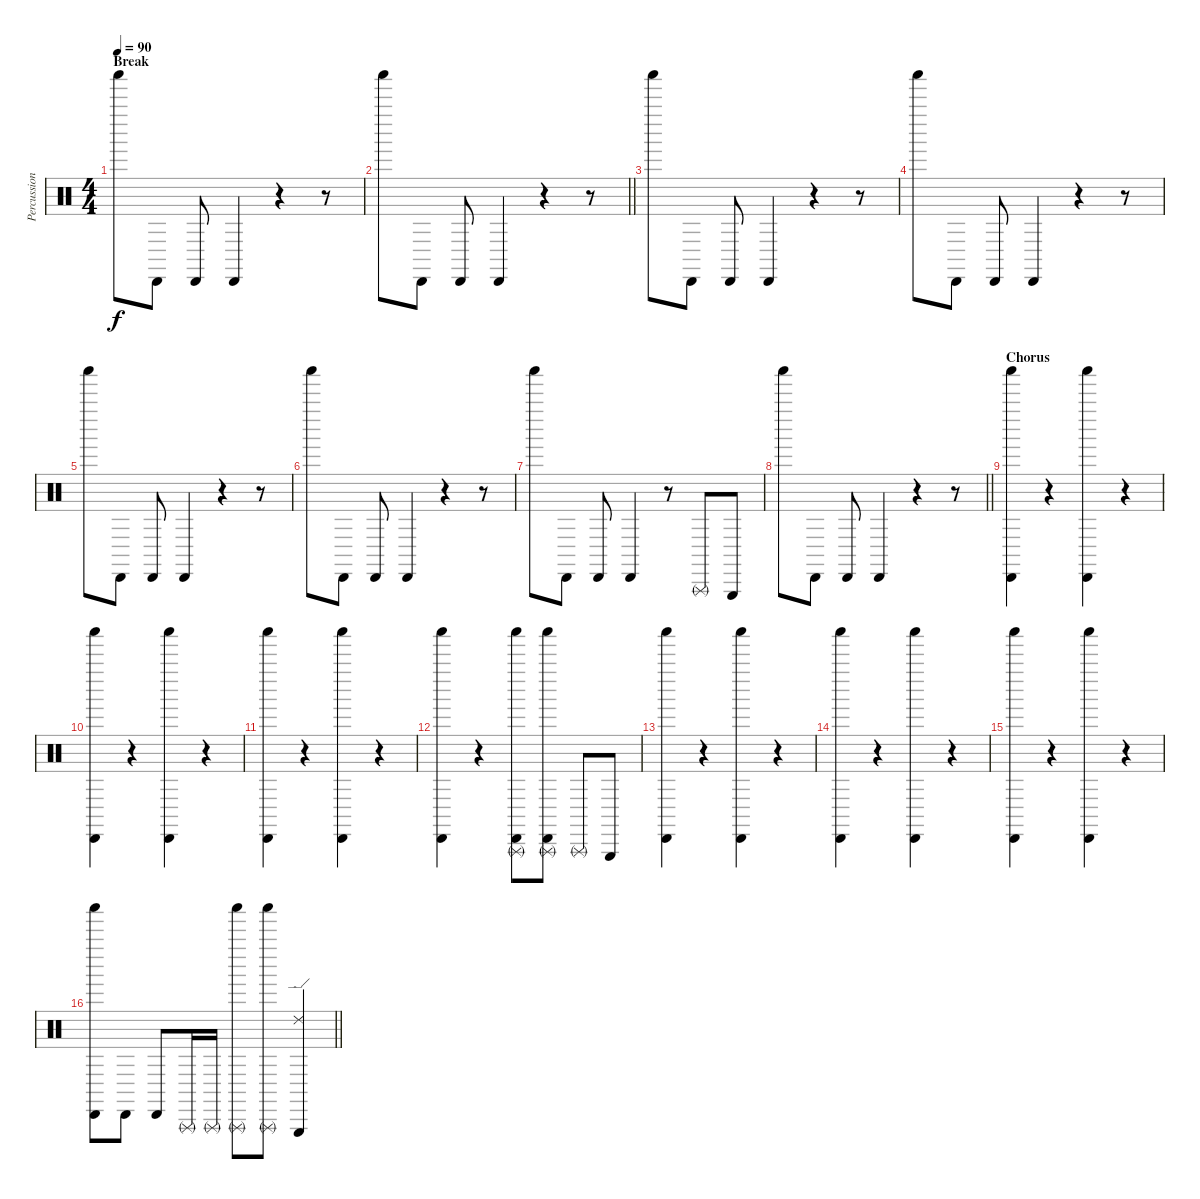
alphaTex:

\track ("Percussion" "Percussion") {instrument percussion}
\staff {score}
\articulation defaults
\ts (4 4)
\section ("" "Break")
\tempo 90
\clef neutral
\ks c "Shaker (hit)".8{dy f volume 7} "Cabasa (hit)".8 "Cabasa (hit)".8 "Cabasa (hit)".4
r.4 r.8 |
\barLineRight lightlight "Shaker (hit)".8 "Cabasa (hit)".8 "Cabasa (hit)".8 "Cabasa (hit)".4
r.4 r.8 |
"Shaker (hit)".8 "Cabasa (hit)".8 "Cabasa (hit)".8 "Cabasa (hit)".4 r.4 r.8 |
"Shaker (hit)".8 "Cabasa (hit)".8 "Cabasa (hit)".8 "Cabasa (hit)".4 r.4 r.8 |
"Shaker (hit)".8 "Cabasa (hit)".8 "Cabasa (hit)".8 "Cabasa (hit)".4 r.4 r.8 |
"Shaker (hit)".8 "Cabasa (hit)".8 "Cabasa (hit)".8 "Cabasa (hit)".4 r.4 r.8 |
"Shaker (hit)".8 "Cabasa (hit)".8 "Cabasa (hit)".8 "Cabasa (hit)".4 r.8 "Triangle (rnute)".8 "Triangle (hit)".8 |
\barLineRight lightlight "Shaker (hit)".8 "Cabasa (hit)".8 "Cabasa (hit)".8 "Cabasa (hit)".4
r.4 r.8 |
\section ("" "Chorus")
("Shaker (hit)" "Cabasa (hit)").4 r.4 ("Shaker (hit)" "Cabasa (hit)").4 r.4 |
("Shaker (hit)" "Cabasa (hit)").4 r.4 ("Shaker (hit)" "Cabasa (hit)").4 r.4 |
("Shaker (hit)" "Cabasa (hit)").4 r.4 ("Shaker (hit)" "Cabasa (hit)").4 r.4 |
("Shaker (hit)" "Cabasa (hit)").4 r.4 ("Shaker (hit)" "Cabasa (hit)" "Triangle (rnute)").8 ("Shaker (hit)" "Cabasa (hit)" "Triangle (rnute)").8 "Triangle (rnute)".8 "Triangle (hit)".8 |
("Shaker (hit)" "Cabasa (hit)").4 r.4 ("Shaker (hit)" "Cabasa (hit)").4 r.4 |
("Shaker (hit)" "Cabasa (hit)").4 r.4 ("Shaker (hit)" "Cabasa (hit)").4 r.4 |
("Shaker (hit)" "Cabasa (hit)").4 r.4 ("Shaker (hit)" "Cabasa (hit)").4 r.4 |
\barLineRight lightlight
("Shaker (hit)" "Cabasa (hit)").8 "Cabasa (hit)".8 "Cabasa (hit)".8 "Triangle (rnute)".16 "Triangle (rnute)".16 ("Shaker (hit)" "Triangle (rnute)").8 ("Shaker (hit)" "Triangle (rnute)").8 ("Ride (edge) 2" "Triangle (hit)").4
